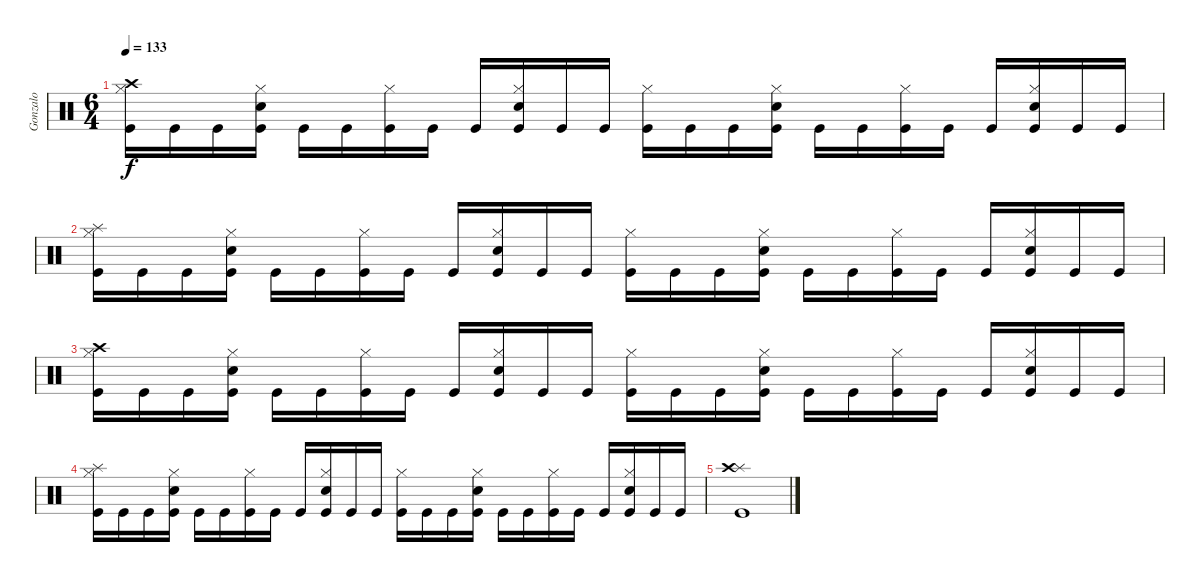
\track ("Gonzalo" "Gonzalo") {instrument percussion}
\staff {score}
\articulation defaults
\ts (6 4)
\tempo 133
\clef neutral
\ks c
("Kick (hit)" "Hi-Hat (closed)" "Crash high (hit)").16{dy f} "Kick (hit)".16 "Kick (hit)".16 ("Kick (hit)" "Hi-Hat (closed)" "Electric Snare (hit)").16 "Kick (hit)".16 "Kick (hit)".16 ("Kick (hit)" "Hi-Hat (closed)").16 "Kick (hit)".16 "Kick (hit)".16 ("Kick (hit)" "Hi-Hat (closed)" "Electric Snare (hit)").16 "Kick (hit)".16 "Kick (hit)".16 ("Kick (hit)" "Hi-Hat (closed)").16 "Kick (hit)".16 "Kick (hit)".16 ("Kick (hit)" "Hi-Hat (closed)" "Electric Snare (hit)").16 "Kick (hit)".16 "Kick (hit)".16 ("Kick (hit)" "Hi-Hat (closed)").16 "Kick (hit)".16 "Kick (hit)".16 ("Kick (hit)" "Hi-Hat (closed)" "Electric Snare (hit)").16 "Kick (hit)".16 "Kick (hit)".16 |
("Kick (hit)" "Hi-Hat (closed)" "Splash (hit)").16 "Kick (hit)".16 "Kick (hit)".16 ("Kick (hit)" "Hi-Hat (closed)" "Electric Snare (hit)").16 "Kick (hit)".16 "Kick (hit)".16 ("Kick (hit)" "Hi-Hat (closed)").16 "Kick (hit)".16 "Kick (hit)".16 ("Kick (hit)" "Hi-Hat (closed)" "Electric Snare (hit)").16 "Kick (hit)".16 "Kick (hit)".16 ("Kick (hit)" "Hi-Hat (closed)").16 "Kick (hit)".16 "Kick (hit)".16 ("Kick (hit)" "Hi-Hat (closed)" "Electric Snare (hit)").16 "Kick (hit)".16 "Kick (hit)".16 ("Kick (hit)" "Hi-Hat (closed)").16 "Kick (hit)".16 "Kick (hit)".16 ("Kick (hit)" "Hi-Hat (closed)" "Electric Snare (hit)").16 "Kick (hit)".16 "Kick (hit)".16 |
("Kick (hit)" "Hi-Hat (closed)" "Crash high (hit)").16 "Kick (hit)".16 "Kick (hit)".16 ("Kick (hit)" "Hi-Hat (closed)" "Electric Snare (hit)").16 "Kick (hit)".16 "Kick (hit)".16 ("Kick (hit)" "Hi-Hat (closed)").16 "Kick (hit)".16 "Kick (hit)".16 ("Kick (hit)" "Hi-Hat (closed)" "Electric Snare (hit)").16 "Kick (hit)".16 "Kick (hit)".16 ("Kick (hit)" "Hi-Hat (closed)").16 "Kick (hit)".16 "Kick (hit)".16 ("Kick (hit)" "Hi-Hat (closed)" "Electric Snare (hit)").16 "Kick (hit)".16 "Kick (hit)".16 ("Kick (hit)" "Hi-Hat (closed)").16 "Kick (hit)".16 "Kick (hit)".16 ("Kick (hit)" "Hi-Hat (closed)" "Electric Snare (hit)").16 "Kick (hit)".16 "Kick (hit)".16 |
("Kick (hit)" "Hi-Hat (closed)" "Splash (hit)").16 "Kick (hit)".16 "Kick (hit)".16 ("Kick (hit)" "Hi-Hat (closed)" "Electric Snare (hit)").16 "Kick (hit)".16 "Kick (hit)".16 ("Kick (hit)" "Hi-Hat (closed)").16 "Kick (hit)".16 "Kick (hit)".16 ("Kick (hit)" "Hi-Hat (closed)" "Electric Snare (hit)").16 "Kick (hit)".16 "Kick (hit)".16 ("Kick (hit)" "Hi-Hat (closed)").16 "Kick (hit)".16 "Kick (hit)".16 ("Kick (hit)" "Hi-Hat (closed)" "Electric Snare (hit)").16 "Kick (hit)".16 "Kick (hit)".16 ("Kick (hit)" "Hi-Hat (closed)").16 "Kick (hit)".16 "Kick (hit)".16 ("Kick (hit)" "Hi-Hat (closed)" "Electric Snare (hit)").16 "Kick (hit)".16 "Kick (hit)".16 |
("Kick (hit)" "Splash (hit)" "Crash high (hit)").1
